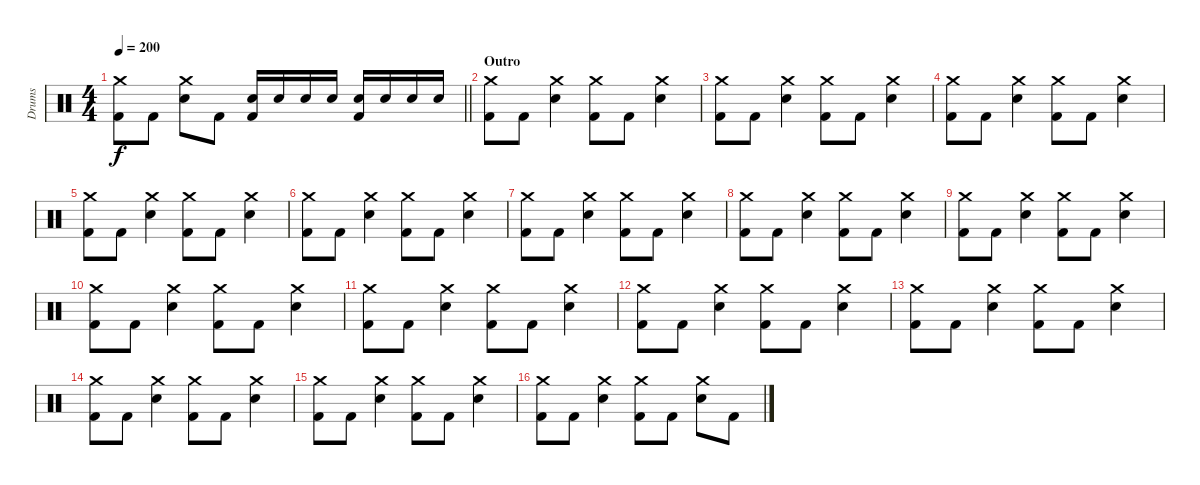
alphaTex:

\track ("Drums" "Drums") {instrument percussion}
\staff {score}
\articulation defaults
\ts (4 4)
\tempo 200
\clef neutral
\barLineRight lightlight
\ks c
("Crash medium (hit)" "Kick (hit) 2").8{dy f} "Kick (hit) 2".8 ("Crash medium (hit)" "Electric Snare (hit)").8 "Kick (hit) 2".8 ("Electric Snare (hit)" "Kick (hit) 2").16 "Electric Snare (hit)".16 "Electric Snare (hit)".16 "Electric Snare (hit)".16 ("Electric Snare (hit)" "Kick (hit) 2").16 "Electric Snare (hit)".16 "Electric Snare (hit)".16 "Electric Snare (hit)".16 |
\section ("" "Outro")
("Crash medium (hit)" "Kick (hit) 2").8 "Kick (hit) 2".8 ("Crash medium (hit)" "Electric Snare (hit)").4 ("Crash medium (hit)" "Kick (hit) 2").8 "Kick (hit) 2".8 ("Crash medium (hit)" "Electric Snare (hit)").4 |
("Crash medium (hit)" "Kick (hit) 2").8 "Kick (hit) 2".8 ("Crash medium (hit)" "Electric Snare (hit)").4 ("Crash medium (hit)" "Kick (hit) 2").8 "Kick (hit) 2".8 ("Crash medium (hit)" "Electric Snare (hit)").4 |
("Crash medium (hit)" "Kick (hit) 2").8 "Kick (hit) 2".8 ("Crash medium (hit)" "Electric Snare (hit)").4 ("Crash medium (hit)" "Kick (hit) 2").8 "Kick (hit) 2".8 ("Crash medium (hit)" "Electric Snare (hit)").4 |
("Crash medium (hit)" "Kick (hit) 2").8 "Kick (hit) 2".8 ("Crash medium (hit)" "Electric Snare (hit)").4 ("Crash medium (hit)" "Kick (hit) 2").8 "Kick (hit) 2".8 ("Crash medium (hit)" "Electric Snare (hit)").4 |
("Crash medium (hit)" "Kick (hit) 2").8 "Kick (hit) 2".8 ("Crash medium (hit)" "Electric Snare (hit)").4 ("Crash medium (hit)" "Kick (hit) 2").8 "Kick (hit) 2".8 ("Crash medium (hit)" "Electric Snare (hit)").4 |
("Crash medium (hit)" "Kick (hit) 2").8 "Kick (hit) 2".8 ("Crash medium (hit)" "Electric Snare (hit)").4 ("Crash medium (hit)" "Kick (hit) 2").8 "Kick (hit) 2".8 ("Crash medium (hit)" "Electric Snare (hit)").4 |
("Crash medium (hit)" "Kick (hit) 2").8 "Kick (hit) 2".8 ("Crash medium (hit)" "Electric Snare (hit)").4 ("Crash medium (hit)" "Kick (hit) 2").8 "Kick (hit) 2".8 ("Crash medium (hit)" "Electric Snare (hit)").4 |
("Crash medium (hit)" "Kick (hit) 2").8 "Kick (hit) 2".8 ("Crash medium (hit)" "Electric Snare (hit)").4 ("Crash medium (hit)" "Kick (hit) 2").8 "Kick (hit) 2".8 ("Crash medium (hit)" "Electric Snare (hit)").4 |
("Crash medium (hit)" "Kick (hit) 2").8 "Kick (hit) 2".8 ("Crash medium (hit)" "Electric Snare (hit)").4 ("Crash medium (hit)" "Kick (hit) 2").8 "Kick (hit) 2".8 ("Crash medium (hit)" "Electric Snare (hit)").4 |
("Crash medium (hit)" "Kick (hit) 2").8 "Kick (hit) 2".8 ("Crash medium (hit)" "Electric Snare (hit)").4 ("Crash medium (hit)" "Kick (hit) 2").8 "Kick (hit) 2".8 ("Crash medium (hit)" "Electric Snare (hit)").4 |
("Crash medium (hit)" "Kick (hit) 2").8 "Kick (hit) 2".8 ("Crash medium (hit)" "Electric Snare (hit)").4 ("Crash medium (hit)" "Kick (hit) 2").8 "Kick (hit) 2".8 ("Crash medium (hit)" "Electric Snare (hit)").4 |
("Crash medium (hit)" "Kick (hit) 2").8 "Kick (hit) 2".8 ("Crash medium (hit)" "Electric Snare (hit)").4 ("Crash medium (hit)" "Kick (hit) 2").8 "Kick (hit) 2".8 ("Crash medium (hit)" "Electric Snare (hit)").4 |
("Crash medium (hit)" "Kick (hit) 2").8 "Kick (hit) 2".8 ("Crash medium (hit)" "Electric Snare (hit)").4 ("Crash medium (hit)" "Kick (hit) 2").8 "Kick (hit) 2".8 ("Crash medium (hit)" "Electric Snare (hit)").4 |
("Crash medium (hit)" "Kick (hit) 2").8 "Kick (hit) 2".8 ("Crash medium (hit)" "Electric Snare (hit)").4 ("Crash medium (hit)" "Kick (hit) 2").8 "Kick (hit) 2".8 ("Crash medium (hit)" "Electric Snare (hit)").4 |
("Crash medium (hit)" "Kick (hit) 2").8 "Kick (hit) 2".8 ("Crash medium (hit)" "Electric Snare (hit)").4 ("Crash medium (hit)" "Kick (hit) 2").8 "Kick (hit) 2".8 ("Crash medium (hit)" "Electric Snare (hit)").8 "Kick (hit) 2".8
